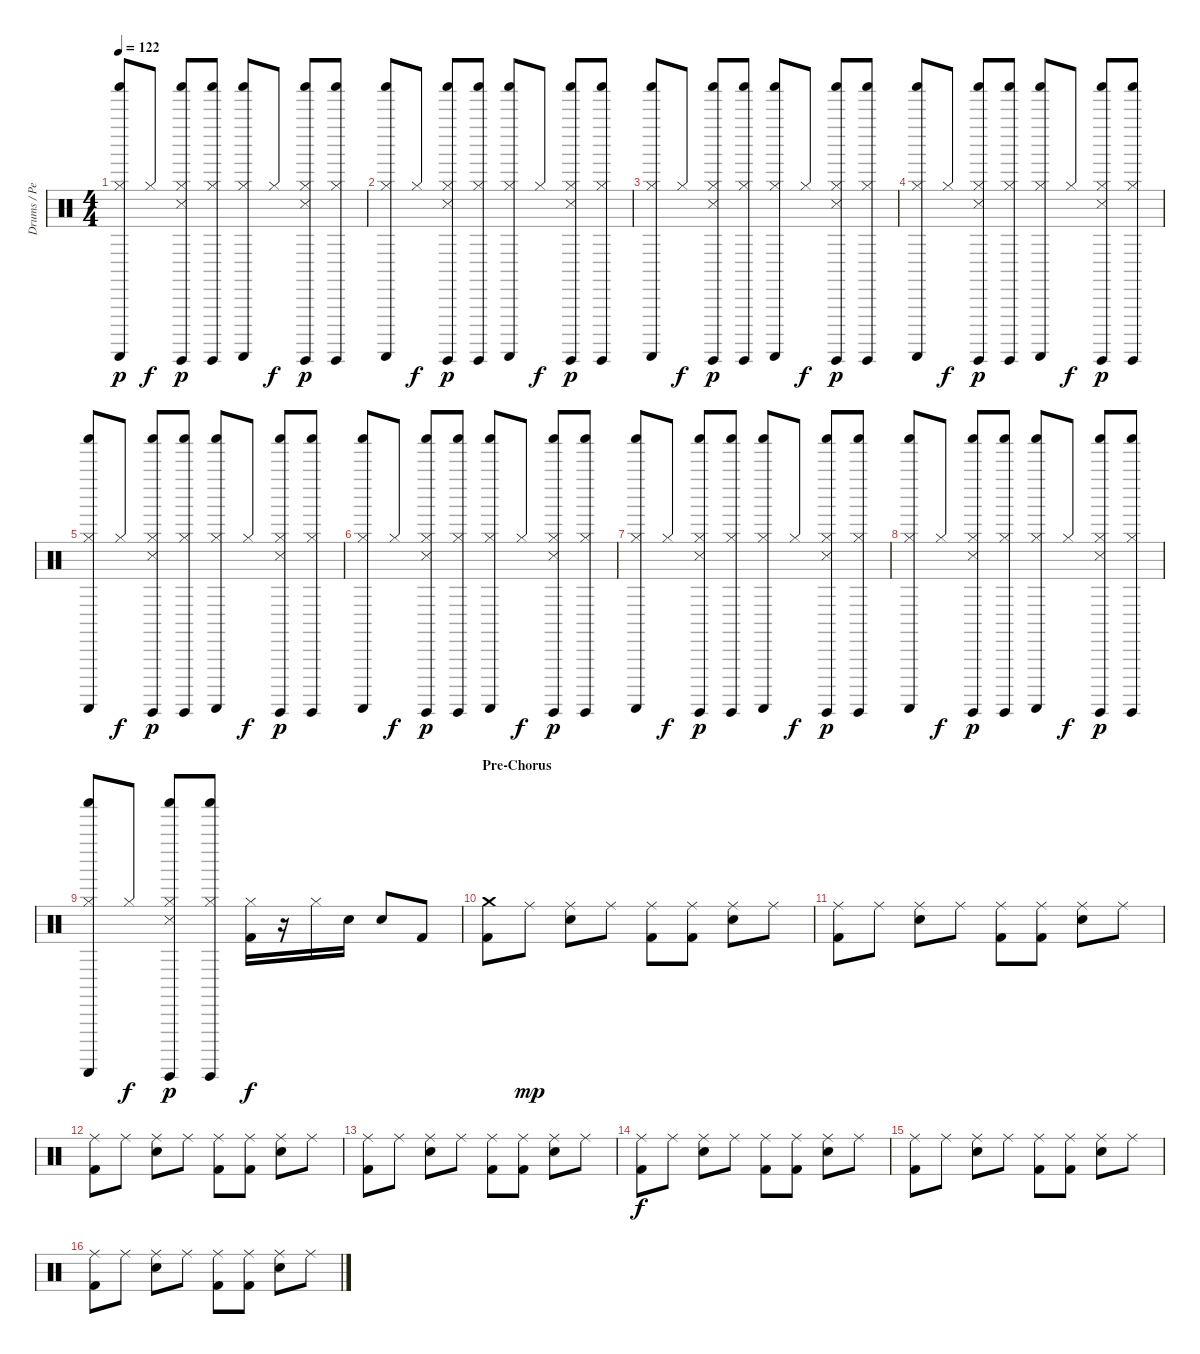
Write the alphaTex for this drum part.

\track ("Drums / Percussion" "Drums / Pe") {instrument percussion}
\staff {score}
\articulation defaults
\ts (4 4)
\tempo 122
\clef neutral
\ks c
("Hi-Hat (closed)" "Shaker (hit)" "Guiro (scrap-return)").8{dy p} "Hi-Hat (closed)".8{dy f} ("Hi-Hat (closed)" "Shaker (hit)" "Guiro (hit)" "Snare (side stick) 3").8{dy p} ("Hi-Hat (closed)" "Shaker (hit)" "Guiro (hit)").8 ("Hi-Hat (closed)" "Shaker (hit)" "Guiro (scrap-return)").8 "Hi-Hat (closed)".8{dy f} ("Hi-Hat (closed)" "Shaker (hit)" "Guiro (hit)" "Snare (side stick) 3").8{dy p} ("Hi-Hat (closed)" "Shaker (hit)" "Guiro (hit)").8 |
("Hi-Hat (closed)" "Shaker (hit)" "Guiro (scrap-return)").8 "Hi-Hat (closed)".8{dy f} ("Hi-Hat (closed)" "Shaker (hit)" "Guiro (hit)" "Snare (side stick) 3").8{dy p} ("Hi-Hat (closed)" "Shaker (hit)" "Guiro (hit)").8 ("Hi-Hat (closed)" "Shaker (hit)" "Guiro (scrap-return)").8 "Hi-Hat (closed)".8{dy f} ("Hi-Hat (closed)" "Shaker (hit)" "Guiro (hit)" "Snare (side stick) 3").8{dy p} ("Hi-Hat (closed)" "Shaker (hit)" "Guiro (hit)").8 |
("Hi-Hat (closed)" "Shaker (hit)" "Guiro (scrap-return)").8 "Hi-Hat (closed)".8{dy f} ("Hi-Hat (closed)" "Shaker (hit)" "Guiro (hit)" "Snare (side stick) 3").8{dy p} ("Hi-Hat (closed)" "Shaker (hit)" "Guiro (hit)").8 ("Hi-Hat (closed)" "Shaker (hit)" "Guiro (scrap-return)").8 "Hi-Hat (closed)".8{dy f} ("Hi-Hat (closed)" "Shaker (hit)" "Guiro (hit)" "Snare (side stick) 3").8{dy p} ("Hi-Hat (closed)" "Shaker (hit)" "Guiro (hit)").8 |
("Hi-Hat (closed)" "Shaker (hit)" "Guiro (scrap-return)").8 "Hi-Hat (closed)".8{dy f} ("Hi-Hat (closed)" "Shaker (hit)" "Guiro (hit)" "Snare (side stick) 3").8{dy p} ("Hi-Hat (closed)" "Shaker (hit)" "Guiro (hit)").8 ("Hi-Hat (closed)" "Shaker (hit)" "Guiro (scrap-return)").8 "Hi-Hat (closed)".8{dy f} ("Hi-Hat (closed)" "Shaker (hit)" "Guiro (hit)" "Snare (side stick) 3").8{dy p} ("Hi-Hat (closed)" "Shaker (hit)" "Guiro (hit)").8 |
("Hi-Hat (closed)" "Shaker (hit)" "Guiro (scrap-return)").8 "Hi-Hat (closed)".8{dy f} ("Hi-Hat (closed)" "Shaker (hit)" "Guiro (hit)" "Snare (side stick) 3").8{dy p} ("Hi-Hat (closed)" "Shaker (hit)" "Guiro (hit)").8 ("Hi-Hat (closed)" "Shaker (hit)" "Guiro (scrap-return)").8 "Hi-Hat (closed)".8{dy f} ("Hi-Hat (closed)" "Shaker (hit)" "Guiro (hit)" "Snare (side stick) 3").8{dy p} ("Hi-Hat (closed)" "Shaker (hit)" "Guiro (hit)").8 |
("Hi-Hat (closed)" "Shaker (hit)" "Guiro (scrap-return)").8 "Hi-Hat (closed)".8{dy f} ("Hi-Hat (closed)" "Shaker (hit)" "Guiro (hit)" "Snare (side stick) 3").8{dy p} ("Hi-Hat (closed)" "Shaker (hit)" "Guiro (hit)").8 ("Hi-Hat (closed)" "Shaker (hit)" "Guiro (scrap-return)").8 "Hi-Hat (closed)".8{dy f} ("Hi-Hat (closed)" "Shaker (hit)" "Guiro (hit)" "Snare (side stick) 3").8{dy p} ("Hi-Hat (closed)" "Shaker (hit)" "Guiro (hit)").8 |
("Hi-Hat (closed)" "Shaker (hit)" "Guiro (scrap-return)").8 "Hi-Hat (closed)".8{dy f} ("Hi-Hat (closed)" "Shaker (hit)" "Guiro (hit)" "Snare (side stick) 3").8{dy p} ("Hi-Hat (closed)" "Shaker (hit)" "Guiro (hit)").8 ("Hi-Hat (closed)" "Shaker (hit)" "Guiro (scrap-return)").8 "Hi-Hat (closed)".8{dy f} ("Hi-Hat (closed)" "Shaker (hit)" "Guiro (hit)" "Snare (side stick) 3").8{dy p} ("Hi-Hat (closed)" "Shaker (hit)" "Guiro (hit)").8 |
("Hi-Hat (closed)" "Shaker (hit)" "Guiro (scrap-return)").8 "Hi-Hat (closed)".8{dy f} ("Hi-Hat (closed)" "Shaker (hit)" "Guiro (hit)" "Snare (side stick) 3").8{dy p} ("Hi-Hat (closed)" "Shaker (hit)" "Guiro (hit)").8 ("Hi-Hat (closed)" "Shaker (hit)" "Guiro (scrap-return)").8 "Hi-Hat (closed)".8{dy f} ("Hi-Hat (closed)" "Shaker (hit)" "Guiro (hit)" "Snare (side stick) 3").8{dy p} ("Hi-Hat (closed)" "Shaker (hit)" "Guiro (hit)").8 |
("Hi-Hat (closed)" "Shaker (hit)" "Guiro (scrap-return)").8 "Hi-Hat (closed)".8{dy f} ("Hi-Hat (closed)" "Shaker (hit)" "Guiro (hit)" "Snare (side stick) 3").8{dy p} ("Hi-Hat (closed)" "Shaker (hit)" "Guiro (hit)").8 ("Hi-Hat (closed)" "Kick (hit) 2").16{dy f} r.16 "Hi-Hat (closed)".16 "Snare (hit) 2".16 "Snare (hit) 2".8 "Kick (hit) 2".8 |
\section ("" "Pre-Chorus")
("Crash medium (hit)" "Kick (hit) 2").8 "Ride (middle)".8{dy mp} ("Ride (middle)" "Snare (hit) 2").8 "Ride (middle)".8 ("Ride (middle)" "Kick (hit) 2").8 ("Ride (middle)" "Kick (hit) 2").8 ("Ride (middle)" "Snare (hit) 2").8 "Ride (middle)".8 |
("Ride (middle)" "Kick (hit) 2").8 "Ride (middle)".8 ("Ride (middle)" "Snare (hit) 2").8 "Ride (middle)".8 ("Ride (middle)" "Kick (hit) 2").8 ("Ride (middle)" "Kick (hit) 2").8 ("Ride (middle)" "Snare (hit) 2").8 "Ride (middle)".8 |
("Ride (middle)" "Kick (hit) 2").8 "Ride (middle)".8 ("Ride (middle)" "Snare (hit) 2").8 "Ride (middle)".8 ("Ride (middle)" "Kick (hit) 2").8 ("Ride (middle)" "Kick (hit) 2").8 ("Ride (middle)" "Snare (hit) 2").8 "Ride (middle)".8 |
("Ride (middle)" "Kick (hit) 2").8 "Ride (middle)".8 ("Ride (middle)" "Snare (hit) 2").8 "Ride (middle)".8 ("Ride (middle)" "Kick (hit) 2").8 ("Ride (middle)" "Kick (hit) 2").8 ("Ride (middle)" "Snare (hit) 2").8 "Ride (middle)".8 |
("Ride (middle)" "Kick (hit) 2").8{dy f} "Ride (middle)".8 ("Ride (middle)" "Snare (hit) 2").8 "Ride (middle)".8 ("Ride (middle)" "Kick (hit) 2").8 ("Ride (middle)" "Kick (hit) 2").8 ("Ride (middle)" "Snare (hit) 2").8 "Ride (middle)".8 |
("Ride (middle)" "Kick (hit) 2").8 "Ride (middle)".8 ("Ride (middle)" "Snare (hit) 2").8 "Ride (middle)".8 ("Ride (middle)" "Kick (hit) 2").8 ("Ride (middle)" "Kick (hit) 2").8 ("Ride (middle)" "Snare (hit) 2").8 "Ride (middle)".8 |
("Ride (middle)" "Kick (hit) 2").8 "Ride (middle)".8 ("Ride (middle)" "Snare (hit) 2").8 "Ride (middle)".8 ("Ride (middle)" "Kick (hit) 2").8 ("Ride (middle)" "Kick (hit) 2").8 ("Ride (middle)" "Snare (hit) 2").8 "Ride (middle)".8
